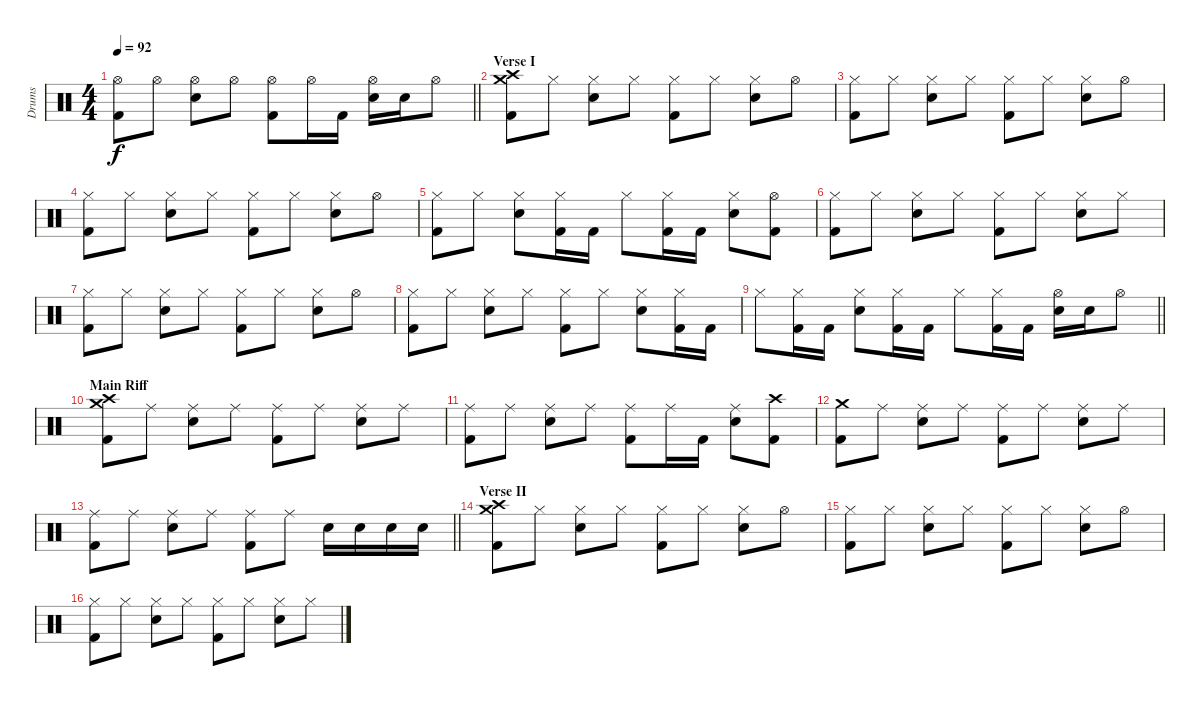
\track ("Drums" "Drums") {instrument percussion}
\staff {score}
\articulation defaults
\ts (4 4)
\tempo 92
\clef neutral
\barLineRight lightlight
\ks c
("Hi-Hat (open)" "Kick (hit) 2").8{dy f} "Hi-Hat (open)".8 ("Hi-Hat (open)" "Electric Snare (hit)").8 "Hi-Hat (open)".8 ("Hi-Hat (open)" "Kick (hit) 2").8 "Hi-Hat (open)".16 "Kick (hit) 2".16 ("Hi-Hat (open)" "Electric Snare (hit)").16 "Electric Snare (hit)".16 "Hi-Hat (open)".8 |
\section ("" "Verse I")
("Crash medium (hit)" "Crash high (hit)" "Kick (hit) 2").8 "Hi-Hat (closed)".8 ("Hi-Hat (closed)" "Electric Snare (hit)").8 "Hi-Hat (closed)".8 ("Hi-Hat (closed)" "Kick (hit) 2").8 "Hi-Hat (closed)".8 ("Hi-Hat (closed)" "Electric Snare (hit)").8 "Hi-Hat (open)".8 |
("Hi-Hat (closed)" "Kick (hit) 2").8 "Hi-Hat (closed)".8 ("Hi-Hat (closed)" "Electric Snare (hit)").8 "Hi-Hat (closed)".8 ("Hi-Hat (closed)" "Kick (hit) 2").8 "Hi-Hat (closed)".8 ("Hi-Hat (closed)" "Electric Snare (hit)").8 "Hi-Hat (open)".8 |
("Hi-Hat (closed)" "Kick (hit) 2").8 "Hi-Hat (closed)".8 ("Hi-Hat (closed)" "Electric Snare (hit)").8 "Hi-Hat (closed)".8 ("Hi-Hat (closed)" "Kick (hit) 2").8 "Hi-Hat (closed)".8 ("Hi-Hat (closed)" "Electric Snare (hit)").8 "Hi-Hat (open)".8 |
("Hi-Hat (closed)" "Kick (hit) 2").8 "Hi-Hat (closed)".8 ("Hi-Hat (closed)" "Electric Snare (hit)").8 ("Hi-Hat (closed)" "Kick (hit) 2").16 "Kick (hit) 2".16 "Hi-Hat (closed)".8 ("Hi-Hat (closed)" "Kick (hit) 2").16 "Kick (hit) 2".16 ("Hi-Hat (closed)" "Electric Snare (hit)").8 ("Hi-Hat (open)" "Kick (hit) 2").8 |
("Hi-Hat (closed)" "Kick (hit) 2").8 "Hi-Hat (closed)".8 ("Hi-Hat (closed)" "Electric Snare (hit)").8 "Hi-Hat (closed)".8 ("Hi-Hat (closed)" "Kick (hit) 2").8 "Hi-Hat (closed)".8 ("Hi-Hat (closed)" "Electric Snare (hit)").8 "Hi-Hat (closed)".8 |
("Hi-Hat (closed)" "Kick (hit) 2").8 "Hi-Hat (closed)".8 ("Hi-Hat (closed)" "Electric Snare (hit)").8 "Hi-Hat (closed)".8 ("Hi-Hat (closed)" "Kick (hit) 2").8 "Hi-Hat (closed)".8 ("Hi-Hat (closed)" "Electric Snare (hit)").8 "Hi-Hat (open)".8 |
("Hi-Hat (closed)" "Kick (hit) 2").8 "Hi-Hat (closed)".8 ("Hi-Hat (closed)" "Electric Snare (hit)").8 "Hi-Hat (closed)".8 ("Hi-Hat (closed)" "Kick (hit) 2").8 "Hi-Hat (closed)".8 ("Hi-Hat (closed)" "Electric Snare (hit)").8 ("Hi-Hat (closed)" "Kick (hit) 2").16 "Kick (hit) 2".16 |
\barLineRight lightlight "Hi-Hat (closed)".8
("Hi-Hat (closed)" "Kick (hit) 2").16 "Kick (hit) 2".16 ("Hi-Hat (closed)" "Electric Snare (hit)").8 ("Hi-Hat (closed)" "Kick (hit) 2").16 "Kick (hit) 2".16 "Hi-Hat (closed)".8 ("Hi-Hat (closed)" "Kick (hit) 2").16 "Kick (hit) 2".16 ("Hi-Hat (open)" "Electric Snare (hit)").16 "Electric Snare (hit)".16 "Hi-Hat (open)".8 |
\section ("" "Main Riff")
("Crash medium (hit)" "Crash high (hit)" "Kick (hit) 2").8 "Ride (middle)".8 ("Ride (middle)" "Electric Snare (hit)").8 "Ride (middle)".8 ("Ride (middle)" "Kick (hit) 2").8 "Ride (middle)".8 ("Ride (middle)" "Electric Snare (hit)").8 "Ride (middle)".8 |
("Ride (middle)" "Kick (hit) 2").8 "Ride (middle)".8 ("Ride (middle)" "Electric Snare (hit)").8 "Ride (middle)".8 ("Ride (middle)" "Kick (hit) 2").8 "Ride (middle)".16 "Kick (hit) 2".16 ("Ride (middle)" "Electric Snare (hit)").8 ("Crash high (hit)" "Kick (hit) 2").8 |
("Crash medium (hit)" "Kick (hit) 2").8 "Ride (middle)".8 ("Ride (middle)" "Electric Snare (hit)").8 "Ride (middle)".8 ("Ride (middle)" "Kick (hit) 2").8 "Ride (middle)".8 ("Ride (middle)" "Electric Snare (hit)").8 "Ride (middle)".8 |
\barLineRight lightlight
("Ride (middle)" "Kick (hit) 2").8 "Ride (middle)".8 ("Ride (middle)" "Electric Snare (hit)").8 "Ride (middle)".8 ("Ride (middle)" "Kick (hit) 2").8 "Ride (middle)".8 "Electric Snare (hit)".16 "Electric Snare (hit)".16 "Electric Snare (hit)".16 "Electric Snare (hit)".16 |
\section ("" "Verse II")
("Crash medium (hit)" "Crash high (hit)" "Kick (hit) 2").8 "Hi-Hat (closed)".8 ("Hi-Hat (closed)" "Electric Snare (hit)").8 "Hi-Hat (closed)".8 ("Hi-Hat (closed)" "Kick (hit) 2").8 "Hi-Hat (closed)".8 ("Hi-Hat (closed)" "Electric Snare (hit)").8 "Hi-Hat (open)".8 |
("Hi-Hat (closed)" "Kick (hit) 2").8 "Hi-Hat (closed)".8 ("Hi-Hat (closed)" "Electric Snare (hit)").8 "Hi-Hat (closed)".8 ("Hi-Hat (closed)" "Kick (hit) 2").8 "Hi-Hat (closed)".8 ("Hi-Hat (closed)" "Electric Snare (hit)").8 "Hi-Hat (open)".8 |
("Hi-Hat (closed)" "Kick (hit) 2").8 "Hi-Hat (closed)".8 ("Hi-Hat (closed)" "Electric Snare (hit)").8 "Hi-Hat (closed)".8 ("Hi-Hat (closed)" "Kick (hit) 2").8 "Hi-Hat (closed)".8 ("Hi-Hat (closed)" "Electric Snare (hit)").8 "Hi-Hat (closed)".8
